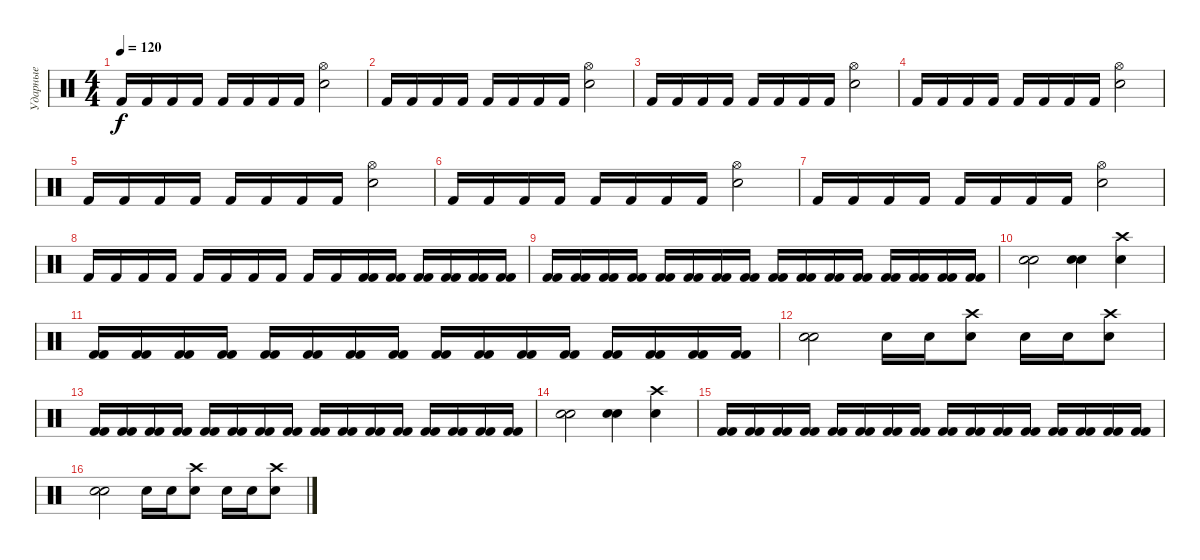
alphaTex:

\track ("Ударные" "Ударные") {instrument percussion}
\staff {score}
\articulation defaults
\ts (4 4)
\tempo 120
\clef neutral
\ks c "Kick (hit) 2".16{dy f} "Kick (hit) 2".16 "Kick (hit) 2".16 "Kick (hit) 2".16 "Kick (hit) 2".16 "Kick (hit) 2".16 "Kick (hit) 2".16 "Kick (hit) 2".16
("Electric Snare (hit)" "Hi-Hat (open)").2 |
"Kick (hit) 2".16 "Kick (hit) 2".16 "Kick (hit) 2".16 "Kick (hit) 2".16 "Kick (hit) 2".16 "Kick (hit) 2".16 "Kick (hit) 2".16 "Kick (hit) 2".16 ("Electric Snare (hit)" "Hi-Hat (open)").2 |
"Kick (hit) 2".16 "Kick (hit) 2".16 "Kick (hit) 2".16 "Kick (hit) 2".16 "Kick (hit) 2".16 "Kick (hit) 2".16 "Kick (hit) 2".16 "Kick (hit) 2".16 ("Electric Snare (hit)" "Hi-Hat (open)").2 |
"Kick (hit) 2".16 "Kick (hit) 2".16 "Kick (hit) 2".16 "Kick (hit) 2".16 "Kick (hit) 2".16 "Kick (hit) 2".16 "Kick (hit) 2".16 "Kick (hit) 2".16 ("Electric Snare (hit)" "Hi-Hat (open)").2 |
"Kick (hit) 2".16 "Kick (hit) 2".16 "Kick (hit) 2".16 "Kick (hit) 2".16 "Kick (hit) 2".16 "Kick (hit) 2".16 "Kick (hit) 2".16 "Kick (hit) 2".16 ("Electric Snare (hit)" "Hi-Hat (open)").2 |
"Kick (hit) 2".16 "Kick (hit) 2".16 "Kick (hit) 2".16 "Kick (hit) 2".16 "Kick (hit) 2".16 "Kick (hit) 2".16 "Kick (hit) 2".16 "Kick (hit) 2".16 ("Electric Snare (hit)" "Hi-Hat (open)").2 |
"Kick (hit) 2".16 "Kick (hit) 2".16 "Kick (hit) 2".16 "Kick (hit) 2".16 "Kick (hit) 2".16 "Kick (hit) 2".16 "Kick (hit) 2".16 "Kick (hit) 2".16 ("Electric Snare (hit)" "Hi-Hat (open)").2 |
"Kick (hit) 2".16 "Kick (hit) 2".16 "Kick (hit) 2".16 "Kick (hit) 2".16 "Kick (hit) 2".16 "Kick (hit) 2".16 "Kick (hit) 2".16 "Kick (hit) 2".16 "Kick (hit) 2".16 "Kick (hit) 2".16 ("Kick (hit) 2" "Kick (hit) 2").16 ("Kick (hit) 2" "Kick (hit) 2").16 ("Kick (hit) 2" "Kick (hit) 2").16 ("Kick (hit) 2" "Kick (hit) 2").16 ("Kick (hit) 2" "Kick (hit) 2").16 ("Kick (hit) 2" "Kick (hit) 2").16 |
("Kick (hit) 2" "Kick (hit) 2").16 ("Kick (hit) 2" "Kick (hit) 2").16 ("Kick (hit) 2" "Kick (hit) 2").16 ("Kick (hit) 2" "Kick (hit) 2").16 ("Kick (hit) 2" "Kick (hit) 2").16 ("Kick (hit) 2" "Kick (hit) 2").16 ("Kick (hit) 2" "Kick (hit) 2").16 ("Kick (hit) 2" "Kick (hit) 2").16 ("Kick (hit) 2" "Kick (hit) 2").16 ("Kick (hit) 2" "Kick (hit) 2").16 ("Kick (hit) 2" "Kick (hit) 2").16 ("Kick (hit) 2" "Kick (hit) 2").16 ("Kick (hit) 2" "Kick (hit) 2").16 ("Kick (hit) 2" "Kick (hit) 2").16 ("Kick (hit) 2" "Kick (hit) 2").16 ("Kick (hit) 2" "Kick (hit) 2").16 |
("Electric Snare (hit)" "Electric Snare (hit)").2 ("Electric Snare (hit)" "Electric Snare (hit)").4 ("Crash high (hit)" "Electric Snare (hit)").4 |
("Kick (hit) 2" "Kick (hit) 2").16 ("Kick (hit) 2" "Kick (hit) 2").16 ("Kick (hit) 2" "Kick (hit) 2").16 ("Kick (hit) 2" "Kick (hit) 2").16 ("Kick (hit) 2" "Kick (hit) 2").16 ("Kick (hit) 2" "Kick (hit) 2").16 ("Kick (hit) 2" "Kick (hit) 2").16 ("Kick (hit) 2" "Kick (hit) 2").16 ("Kick (hit) 2" "Kick (hit) 2").16 ("Kick (hit) 2" "Kick (hit) 2").16 ("Kick (hit) 2" "Kick (hit) 2").16 ("Kick (hit) 2" "Kick (hit) 2").16 ("Kick (hit) 2" "Kick (hit) 2").16 ("Kick (hit) 2" "Kick (hit) 2").16 ("Kick (hit) 2" "Kick (hit) 2").16 ("Kick (hit) 2" "Kick (hit) 2").16 |
("Electric Snare (hit)" "Electric Snare (hit)").2 "Electric Snare (hit)".16 "Electric Snare (hit)".16 ("Crash high (hit)" "Electric Snare (hit)").8 "Electric Snare (hit)".16 "Electric Snare (hit)".16 ("Crash high (hit)" "Electric Snare (hit)").8 |
("Kick (hit) 2" "Kick (hit) 2").16 ("Kick (hit) 2" "Kick (hit) 2").16 ("Kick (hit) 2" "Kick (hit) 2").16 ("Kick (hit) 2" "Kick (hit) 2").16 ("Kick (hit) 2" "Kick (hit) 2").16 ("Kick (hit) 2" "Kick (hit) 2").16 ("Kick (hit) 2" "Kick (hit) 2").16 ("Kick (hit) 2" "Kick (hit) 2").16 ("Kick (hit) 2" "Kick (hit) 2").16 ("Kick (hit) 2" "Kick (hit) 2").16 ("Kick (hit) 2" "Kick (hit) 2").16 ("Kick (hit) 2" "Kick (hit) 2").16 ("Kick (hit) 2" "Kick (hit) 2").16 ("Kick (hit) 2" "Kick (hit) 2").16 ("Kick (hit) 2" "Kick (hit) 2").16 ("Kick (hit) 2" "Kick (hit) 2").16 |
("Electric Snare (hit)" "Electric Snare (hit)").2 ("Electric Snare (hit)" "Electric Snare (hit)").4 ("Crash high (hit)" "Electric Snare (hit)").4 |
("Kick (hit) 2" "Kick (hit) 2").16 ("Kick (hit) 2" "Kick (hit) 2").16 ("Kick (hit) 2" "Kick (hit) 2").16 ("Kick (hit) 2" "Kick (hit) 2").16 ("Kick (hit) 2" "Kick (hit) 2").16 ("Kick (hit) 2" "Kick (hit) 2").16 ("Kick (hit) 2" "Kick (hit) 2").16 ("Kick (hit) 2" "Kick (hit) 2").16 ("Kick (hit) 2" "Kick (hit) 2").16 ("Kick (hit) 2" "Kick (hit) 2").16 ("Kick (hit) 2" "Kick (hit) 2").16 ("Kick (hit) 2" "Kick (hit) 2").16 ("Kick (hit) 2" "Kick (hit) 2").16 ("Kick (hit) 2" "Kick (hit) 2").16 ("Kick (hit) 2" "Kick (hit) 2").16 ("Kick (hit) 2" "Kick (hit) 2").16 |
("Electric Snare (hit)" "Electric Snare (hit)").2 "Electric Snare (hit)".16 "Electric Snare (hit)".16 ("Crash high (hit)" "Electric Snare (hit)").8 "Electric Snare (hit)".16 "Electric Snare (hit)".16 ("Crash high (hit)" "Electric Snare (hit)").8
